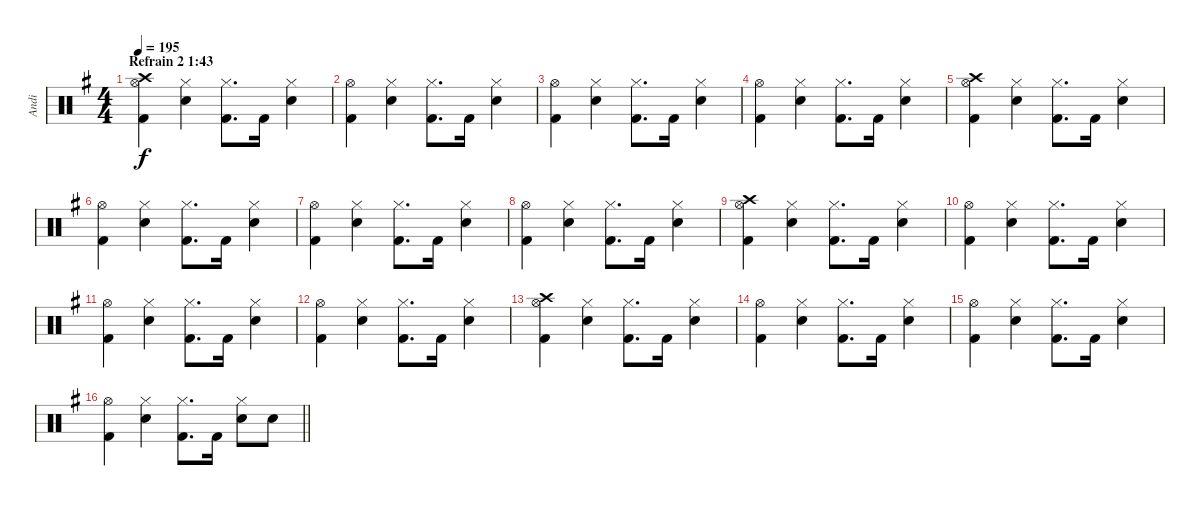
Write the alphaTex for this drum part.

\track ("Andi" "Andi") {instrument percussion}
\staff {score}
\articulation defaults
\ts (4 4)
\section ("" "Refrain 2 1:43")
\tempo 195
\clef neutral
\ks g
("Crash high (hit)" "Hi-Hat (open)" "Kick (hit) 2").4{dy f} ("Hi-Hat (closed)" "Snare (hit) 2").4 ("Hi-Hat (closed)" "Kick (hit) 2").8{d} "Kick (hit) 2".16 ("Hi-Hat (closed)" "Snare (hit) 2").4 |
("Hi-Hat (open)" "Kick (hit) 2").4 ("Hi-Hat (closed)" "Snare (hit) 2").4 ("Hi-Hat (closed)" "Kick (hit) 2").8{d} "Kick (hit) 2".16 ("Hi-Hat (closed)" "Snare (hit) 2").4 |
("Hi-Hat (open)" "Kick (hit) 2").4 ("Hi-Hat (closed)" "Snare (hit) 2").4 ("Hi-Hat (closed)" "Kick (hit) 2").8{d} "Kick (hit) 2".16 ("Hi-Hat (closed)" "Snare (hit) 2").4 |
("Hi-Hat (open)" "Kick (hit) 2").4 ("Hi-Hat (closed)" "Snare (hit) 2").4 ("Hi-Hat (closed)" "Kick (hit) 2").8{d} "Kick (hit) 2".16 ("Hi-Hat (closed)" "Snare (hit) 2").4 |
("Crash high (hit)" "Hi-Hat (open)" "Kick (hit) 2").4 ("Hi-Hat (closed)" "Snare (hit) 2").4 ("Hi-Hat (closed)" "Kick (hit) 2").8{d} "Kick (hit) 2".16 ("Hi-Hat (closed)" "Snare (hit) 2").4 |
("Hi-Hat (open)" "Kick (hit) 2").4 ("Hi-Hat (closed)" "Snare (hit) 2").4 ("Hi-Hat (closed)" "Kick (hit) 2").8{d} "Kick (hit) 2".16 ("Hi-Hat (closed)" "Snare (hit) 2").4 |
("Hi-Hat (open)" "Kick (hit) 2").4 ("Hi-Hat (closed)" "Snare (hit) 2").4 ("Hi-Hat (closed)" "Kick (hit) 2").8{d} "Kick (hit) 2".16 ("Hi-Hat (closed)" "Snare (hit) 2").4 |
("Hi-Hat (open)" "Kick (hit) 2").4 ("Hi-Hat (closed)" "Snare (hit) 2").4 ("Hi-Hat (closed)" "Kick (hit) 2").8{d} "Kick (hit) 2".16 ("Hi-Hat (closed)" "Snare (hit) 2").4 |
("Crash high (hit)" "Hi-Hat (open)" "Kick (hit) 2").4 ("Hi-Hat (closed)" "Snare (hit) 2").4 ("Hi-Hat (closed)" "Kick (hit) 2").8{d} "Kick (hit) 2".16 ("Hi-Hat (closed)" "Snare (hit) 2").4 |
("Hi-Hat (open)" "Kick (hit) 2").4 ("Hi-Hat (closed)" "Snare (hit) 2").4 ("Hi-Hat (closed)" "Kick (hit) 2").8{d} "Kick (hit) 2".16 ("Hi-Hat (closed)" "Snare (hit) 2").4 |
("Hi-Hat (open)" "Kick (hit) 2").4 ("Hi-Hat (closed)" "Snare (hit) 2").4 ("Hi-Hat (closed)" "Kick (hit) 2").8{d} "Kick (hit) 2".16 ("Hi-Hat (closed)" "Snare (hit) 2").4 |
("Hi-Hat (open)" "Kick (hit) 2").4 ("Hi-Hat (closed)" "Snare (hit) 2").4 ("Hi-Hat (closed)" "Kick (hit) 2").8{d} "Kick (hit) 2".16 ("Hi-Hat (closed)" "Snare (hit) 2").4 |
("Crash high (hit)" "Hi-Hat (open)" "Kick (hit) 2").4 ("Hi-Hat (closed)" "Snare (hit) 2").4 ("Hi-Hat (closed)" "Kick (hit) 2").8{d} "Kick (hit) 2".16 ("Hi-Hat (closed)" "Snare (hit) 2").4 |
("Hi-Hat (open)" "Kick (hit) 2").4 ("Hi-Hat (closed)" "Snare (hit) 2").4 ("Hi-Hat (closed)" "Kick (hit) 2").8{d} "Kick (hit) 2".16 ("Hi-Hat (closed)" "Snare (hit) 2").4 |
("Hi-Hat (open)" "Kick (hit) 2").4 ("Hi-Hat (closed)" "Snare (hit) 2").4 ("Hi-Hat (closed)" "Kick (hit) 2").8{d} "Kick (hit) 2".16 ("Hi-Hat (closed)" "Snare (hit) 2").4 |
\barLineRight lightlight
("Hi-Hat (open)" "Kick (hit) 2").4 ("Hi-Hat (closed)" "Snare (hit) 2").4 ("Hi-Hat (closed)" "Kick (hit) 2").8{d} "Kick (hit) 2".16 ("Hi-Hat (closed)" "Snare (hit) 2").8 "Snare (hit) 2".8
